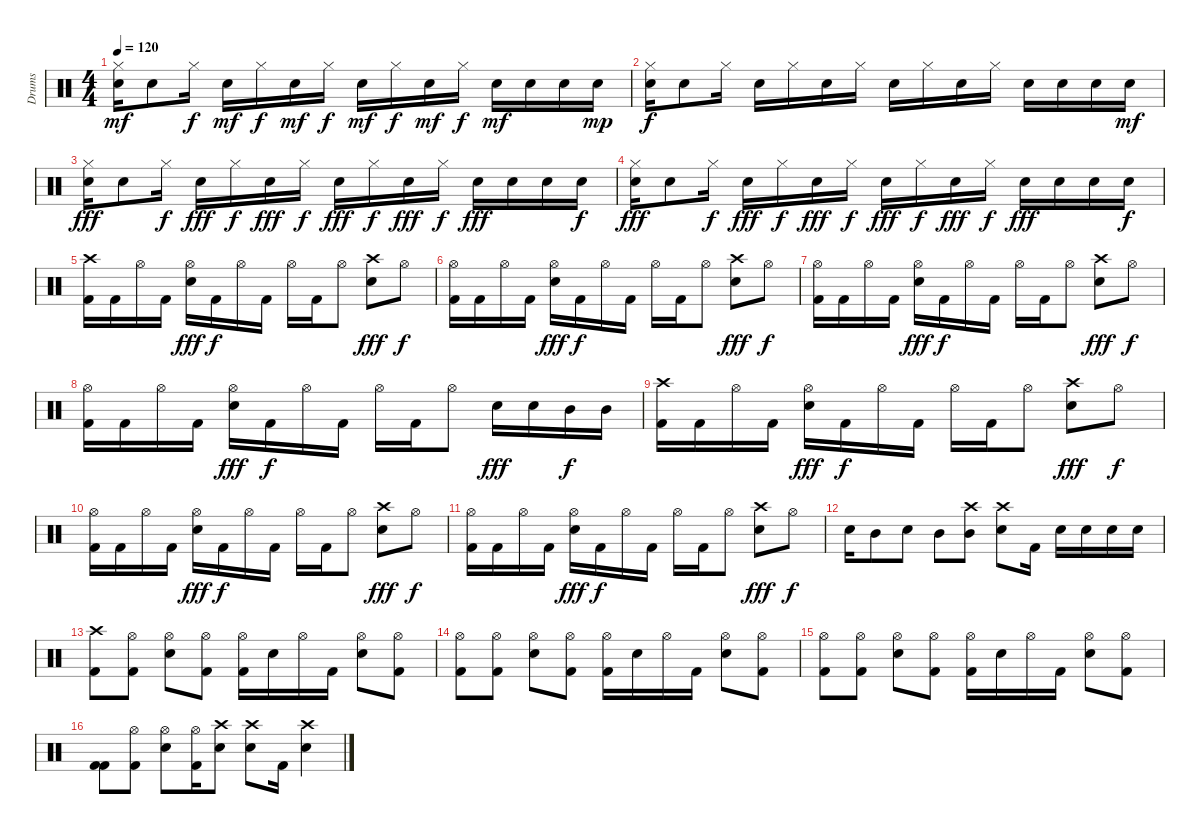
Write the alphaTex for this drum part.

\track ("Drums" "Drums") {instrument percussion}
\staff {score}
\articulation defaults
\ts (4 4)
\tempo 120
\clef neutral
\ks c
("Hi-Hat (closed)" "Snare (hit) 2").16{dy mf} "Snare (hit) 2".8 "Hi-Hat (closed)".16{dy f} "Snare (hit) 2".16{dy mf} "Hi-Hat (closed)".16{dy f} "Snare (hit) 2".16{dy mf} "Hi-Hat (closed)".16{dy f} "Snare (hit) 2".16{dy mf} "Hi-Hat (closed)".16{dy f} "Snare (hit) 2".16{dy mf} "Hi-Hat (closed)".16{dy f} "Snare (hit) 2".16{dy mf} "Snare (hit) 2".16 "Snare (hit) 2".16 "Snare (hit) 2".16{dy mp} |
("Hi-Hat (closed)" "Snare (hit) 2").16{dy f} "Snare (hit) 2".8 "Hi-Hat (closed)".16 "Snare (hit) 2".16 "Hi-Hat (closed)".16 "Snare (hit) 2".16 "Hi-Hat (closed)".16 "Snare (hit) 2".16 "Hi-Hat (closed)".16 "Snare (hit) 2".16 "Hi-Hat (closed)".16 "Snare (hit) 2".16 "Snare (hit) 2".16 "Snare (hit) 2".16 "Snare (hit) 2".16{dy mf} |
("Hi-Hat (closed)" "Snare (hit) 2").16{dy fff} "Snare (hit) 2".8 "Hi-Hat (closed)".16{dy f} "Snare (hit) 2".16{dy fff} "Hi-Hat (closed)".16{dy f} "Snare (hit) 2".16{dy fff} "Hi-Hat (closed)".16{dy f} "Snare (hit) 2".16{dy fff} "Hi-Hat (closed)".16{dy f} "Snare (hit) 2".16{dy fff} "Hi-Hat (closed)".16{dy f} "Snare (hit) 2".16{dy fff} "Snare (hit) 2".16 "Snare (hit) 2".16 "Snare (hit) 2".16{dy f} |
("Hi-Hat (closed)" "Snare (hit) 2").16{dy fff} "Snare (hit) 2".8 "Hi-Hat (closed)".16{dy f} "Snare (hit) 2".16{dy fff} "Hi-Hat (closed)".16{dy f} "Snare (hit) 2".16{dy fff} "Hi-Hat (closed)".16{dy f} "Snare (hit) 2".16{dy fff} "Hi-Hat (closed)".16{dy f} "Snare (hit) 2".16{dy fff} "Hi-Hat (closed)".16{dy f} "Snare (hit) 2".16{dy fff} "Snare (hit) 2".16 "Snare (hit) 2".16 "Snare (hit) 2".16{dy f} |
("Kick (hit) 2" "Crash high (hit)").16 "Kick (hit) 2".16 "Hi-Hat (open)".16 "Kick (hit) 2".16 ("Hi-Hat (open)" "Snare (hit) 2").16{dy fff} "Kick (hit) 2".16{dy f} "Hi-Hat (open)".16 "Kick (hit) 2".16 "Hi-Hat (open)".16 "Kick (hit) 2".16 "Hi-Hat (open)".8 ("Snare (hit) 2" "Crash high (hit)").8{dy fff} "Hi-Hat (open)".8{dy f} |
("Hi-Hat (open)" "Kick (hit) 2").16 "Kick (hit) 2".16 "Hi-Hat (open)".16 "Kick (hit) 2".16 ("Hi-Hat (open)" "Snare (hit) 2").16{dy fff} "Kick (hit) 2".16{dy f} "Hi-Hat (open)".16 "Kick (hit) 2".16 "Hi-Hat (open)".16 "Kick (hit) 2".16 "Hi-Hat (open)".8 ("Snare (hit) 2" "Crash high (hit)").8{dy fff} "Hi-Hat (open)".8{dy f} |
("Hi-Hat (open)" "Kick (hit) 2").16 "Kick (hit) 2".16 "Hi-Hat (open)".16 "Kick (hit) 2".16 ("Hi-Hat (open)" "Snare (hit) 2").16{dy fff} "Kick (hit) 2".16{dy f} "Hi-Hat (open)".16 "Kick (hit) 2".16 "Hi-Hat (open)".16 "Kick (hit) 2".16 "Hi-Hat (open)".8 ("Snare (hit) 2" "Crash high (hit)").8{dy fff} "Hi-Hat (open)".8{dy f} |
("Hi-Hat (open)" "Kick (hit) 2").16 "Kick (hit) 2".16 "Hi-Hat (open)".16 "Kick (hit) 2".16 ("Hi-Hat (open)" "Snare (hit) 2").16{dy fff} "Kick (hit) 2".16{dy f} "Hi-Hat (open)".16 "Kick (hit) 2".16 "Hi-Hat (open)".16 "Kick (hit) 2".16 "Hi-Hat (open)".8 "Snare (hit) 2".16{dy fff} "Snare (hit) 2".16 "Mid Tom (hit)".16{dy f} "Mid Tom (hit)".16 |
("Kick (hit) 2" "Crash high (hit)").16 "Kick (hit) 2".16 "Hi-Hat (open)".16 "Kick (hit) 2".16 ("Hi-Hat (open)" "Snare (hit) 2").16{dy fff} "Kick (hit) 2".16{dy f} "Hi-Hat (open)".16 "Kick (hit) 2".16 "Hi-Hat (open)".16 "Kick (hit) 2".16 "Hi-Hat (open)".8 ("Snare (hit) 2" "Crash high (hit)").8{dy fff} "Hi-Hat (open)".8{dy f} |
("Hi-Hat (open)" "Kick (hit) 2").16 "Kick (hit) 2".16 "Hi-Hat (open)".16 "Kick (hit) 2".16 ("Hi-Hat (open)" "Snare (hit) 2").16{dy fff} "Kick (hit) 2".16{dy f} "Hi-Hat (open)".16 "Kick (hit) 2".16 "Hi-Hat (open)".16 "Kick (hit) 2".16 "Hi-Hat (open)".8 ("Snare (hit) 2" "Crash high (hit)").8{dy fff} "Hi-Hat (open)".8{dy f} |
("Hi-Hat (open)" "Kick (hit) 2").16 "Kick (hit) 2".16 "Hi-Hat (open)".16 "Kick (hit) 2".16 ("Hi-Hat (open)" "Snare (hit) 2").16{dy fff} "Kick (hit) 2".16{dy f} "Hi-Hat (open)".16 "Kick (hit) 2".16 "Hi-Hat (open)".16 "Kick (hit) 2".16 "Hi-Hat (open)".8 ("Snare (hit) 2" "Crash high (hit)").8{dy fff} "Hi-Hat (open)".8{dy f} |
"Snare (hit) 2".16 "Mid Tom (hit)".8 "Snare (hit) 2".8 "Mid Tom (hit)".8 ("Crash high (hit)" "Mid Tom (hit)").8 ("Crash high (hit)" "Snare (hit) 2").8 "Kick (hit) 2".16 "Snare (hit) 2".16 "Snare (hit) 2".16 "Snare (hit) 2".16 "Snare (hit) 2".16 |
("Kick (hit) 2" "Crash high (hit)").8 ("Hi-Hat (open)" "Kick (hit) 2").8 ("Hi-Hat (open)" "Snare (hit) 2").8 ("Hi-Hat (open)" "Kick (hit) 2").8 ("Hi-Hat (open)" "Kick (hit) 2").16 "Snare (hit) 2".16 "Hi-Hat (open)".16 "Kick (hit) 2".16 ("Hi-Hat (open)" "Snare (hit) 2").8 ("Hi-Hat (open)" "Kick (hit) 2").8 |
("Hi-Hat (open)" "Kick (hit) 2").8 ("Hi-Hat (open)" "Kick (hit) 2").8 ("Hi-Hat (open)" "Snare (hit) 2").8 ("Hi-Hat (open)" "Kick (hit) 2").8 ("Hi-Hat (open)" "Kick (hit) 2").16 "Snare (hit) 2".16 "Hi-Hat (open)".16 "Kick (hit) 2".16 ("Hi-Hat (open)" "Snare (hit) 2").8 ("Hi-Hat (open)" "Kick (hit) 2").8 |
("Hi-Hat (open)" "Kick (hit) 2").8 ("Hi-Hat (open)" "Kick (hit) 2").8 ("Hi-Hat (open)" "Snare (hit) 2").8 ("Hi-Hat (open)" "Kick (hit) 2").8 ("Hi-Hat (open)" "Kick (hit) 2").16 "Snare (hit) 2".16 "Hi-Hat (open)".16 "Kick (hit) 2".16 ("Hi-Hat (open)" "Snare (hit) 2").8 ("Hi-Hat (open)" "Kick (hit) 2").8 |
("Kick (hit) 2" "Kick (hit) 2").8 ("Hi-Hat (open)" "Kick (hit) 2").8 ("Hi-Hat (open)" "Snare (hit) 2").8 ("Hi-Hat (open)" "Kick (hit) 2").16 ("Snare (hit) 2" "Crash high (hit)").8 ("Snare (hit) 2" "Crash high (hit)").8 "Kick (hit) 2".16 ("Snare (hit) 2" "Crash high (hit)").4
